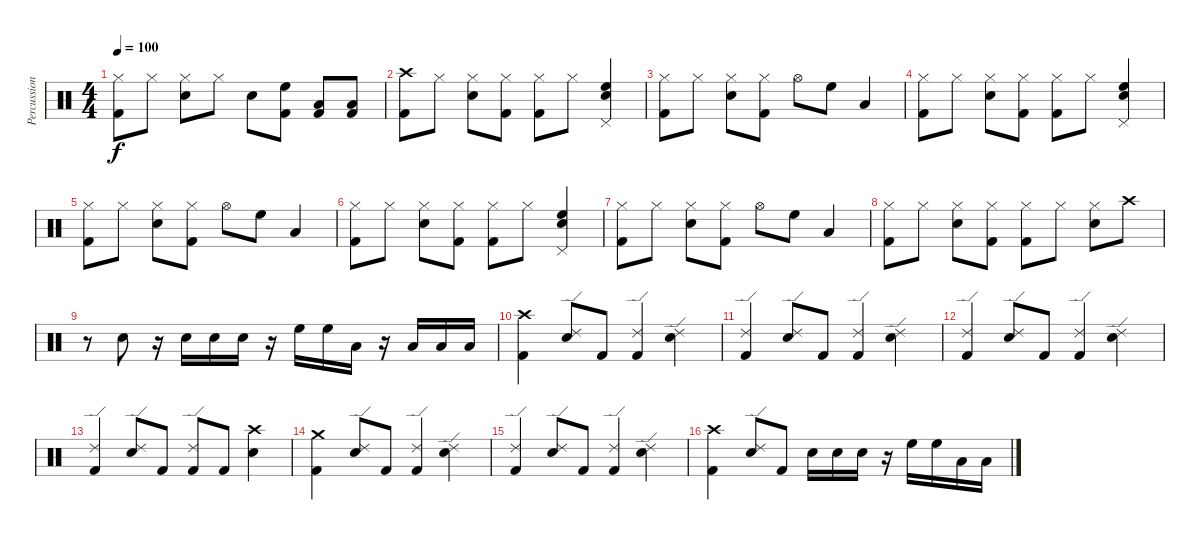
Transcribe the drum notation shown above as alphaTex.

\track ("Percussion" "Percussion") {instrument percussion}
\staff {score}
\articulation defaults
\ts (4 4)
\tempo 100
\clef neutral
\ks c
("Hi-Hat (closed)" "Kick (hit) 2").8{dy f} "Hi-Hat (closed)".8 ("Hi-Hat (closed)" "Snare (hit) 2").8 "Hi-Hat (closed)".8 "Snare (hit) 2".8 ("High Floor Tom (hit)" "Kick (hit) 2").8 ("Low Tom (hit)" "Kick (hit) 2").8 ("Low Floor Tom (hit)" "Kick (hit) 2").8 |
("Crash high (hit)" "Kick (hit) 2").8 "Hi-Hat (closed)".8 ("Hi-Hat (closed)" "Snare (hit) 2").8 ("Hi-Hat (closed)" "Kick (hit) 2").8 ("Hi-Hat (closed)" "Kick (hit) 2").8 "Hi-Hat (closed)".8 ("Pedal Hi-Hat (hit)" "High Floor Tom (hit)" "Snare (hit) 2").4 |
("Hi-Hat (closed)" "Kick (hit) 2").8 "Hi-Hat (closed)".8 ("Hi-Hat (closed)" "Snare (hit) 2").8 ("Hi-Hat (closed)" "Kick (hit) 2").8 "Hi-Hat (open)".8 "High Floor Tom (hit)".8 "Low Tom (hit)".4 |
("Hi-Hat (closed)" "Kick (hit) 2").8 "Hi-Hat (closed)".8 ("Hi-Hat (closed)" "Snare (hit) 2").8 ("Hi-Hat (closed)" "Kick (hit) 2").8 ("Hi-Hat (closed)" "Kick (hit) 2").8 "Hi-Hat (closed)".8 ("Pedal Hi-Hat (hit)" "High Floor Tom (hit)" "Snare (hit) 2").4 |
("Hi-Hat (closed)" "Kick (hit) 2").8 "Hi-Hat (closed)".8 ("Hi-Hat (closed)" "Snare (hit) 2").8 ("Hi-Hat (closed)" "Kick (hit) 2").8 "Hi-Hat (open)".8 "High Floor Tom (hit)".8 "Low Tom (hit)".4 |
("Hi-Hat (closed)" "Kick (hit) 2").8 "Hi-Hat (closed)".8 ("Hi-Hat (closed)" "Snare (hit) 2").8 ("Hi-Hat (closed)" "Kick (hit) 2").8 ("Hi-Hat (closed)" "Kick (hit) 2").8 "Hi-Hat (closed)".8 ("Pedal Hi-Hat (hit)" "High Floor Tom (hit)" "Snare (hit) 2").4 |
("Hi-Hat (closed)" "Kick (hit) 2").8 "Hi-Hat (closed)".8 ("Hi-Hat (closed)" "Snare (hit) 2").8 ("Hi-Hat (closed)" "Kick (hit) 2").8 "Hi-Hat (open)".8 "High Floor Tom (hit)".8 "Low Tom (hit)".4 |
("Hi-Hat (closed)" "Kick (hit) 2").8 "Hi-Hat (closed)".8 ("Hi-Hat (closed)" "Snare (hit) 2").8 ("Hi-Hat (closed)" "Kick (hit) 2").8 ("Hi-Hat (closed)" "Kick (hit) 2").8 "Hi-Hat (closed)".8 ("Hi-Hat (closed)" "Snare (hit) 2").8 "Crash high (hit)".8 |
r.8 "Snare (hit) 2".8 r.16 "Snare (hit) 2".16 "Snare (hit) 2".16 "Snare (hit) 2".16 r.16 "High Floor Tom (hit)".16 "High Floor Tom (hit)".16 "Low Tom (hit)".16 r.16 "Low Tom (hit)".16 "Low Tom (hit)".16 "Low Floor Tom (hit)".16 |
("Crash high (hit)" "Kick (hit) 2").4 ("Ride (edge) 2" "Snare (hit) 2").8 "Kick (hit) 2".8 ("Ride (edge) 2" "Kick (hit) 2").4 ("Ride (edge) 2" "Snare (hit) 2").4 |
("Ride (edge) 2" "Kick (hit) 2").4 ("Ride (edge) 2" "Snare (hit) 2").8 "Kick (hit) 2".8 ("Ride (edge) 2" "Kick (hit) 2").4 ("Ride (edge) 2" "Snare (hit) 2").4 |
("Ride (edge) 2" "Kick (hit) 2").4 ("Ride (edge) 2" "Snare (hit) 2").8 "Kick (hit) 2".8 ("Ride (edge) 2" "Kick (hit) 2").4 ("Ride (edge) 2" "Snare (hit) 2").4 |
("Ride (edge) 2" "Kick (hit) 2").4 ("Ride (edge) 2" "Snare (hit) 2").8 "Kick (hit) 2".8 ("Ride (edge) 2" "Kick (hit) 2").8 "Kick (hit) 2".8 ("Crash high (hit)" "Snare (hit) 2").4 |
("Crash medium (hit)" "Kick (hit) 2").4 ("Ride (edge) 2" "Snare (hit) 2").8 "Kick (hit) 2".8 ("Ride (edge) 2" "Kick (hit) 2").4 ("Ride (edge) 2" "Snare (hit) 2").4 |
("Ride (edge) 2" "Kick (hit) 2").4 ("Ride (edge) 2" "Snare (hit) 2").8 "Kick (hit) 2".8 ("Ride (edge) 2" "Kick (hit) 2").4 ("Ride (edge) 2" "Snare (hit) 2").4 |
("Crash high (hit)" "Kick (hit) 2").4 ("Ride (edge) 2" "Snare (hit) 2").8 "Kick (hit) 2".8 "Snare (hit) 2".16 "Snare (hit) 2".16 "Snare (hit) 2".16 r.16 "High Floor Tom (hit)".16 "High Floor Tom (hit)".16 "Low Tom (hit)".16 "Low Floor Tom (hit)".16
